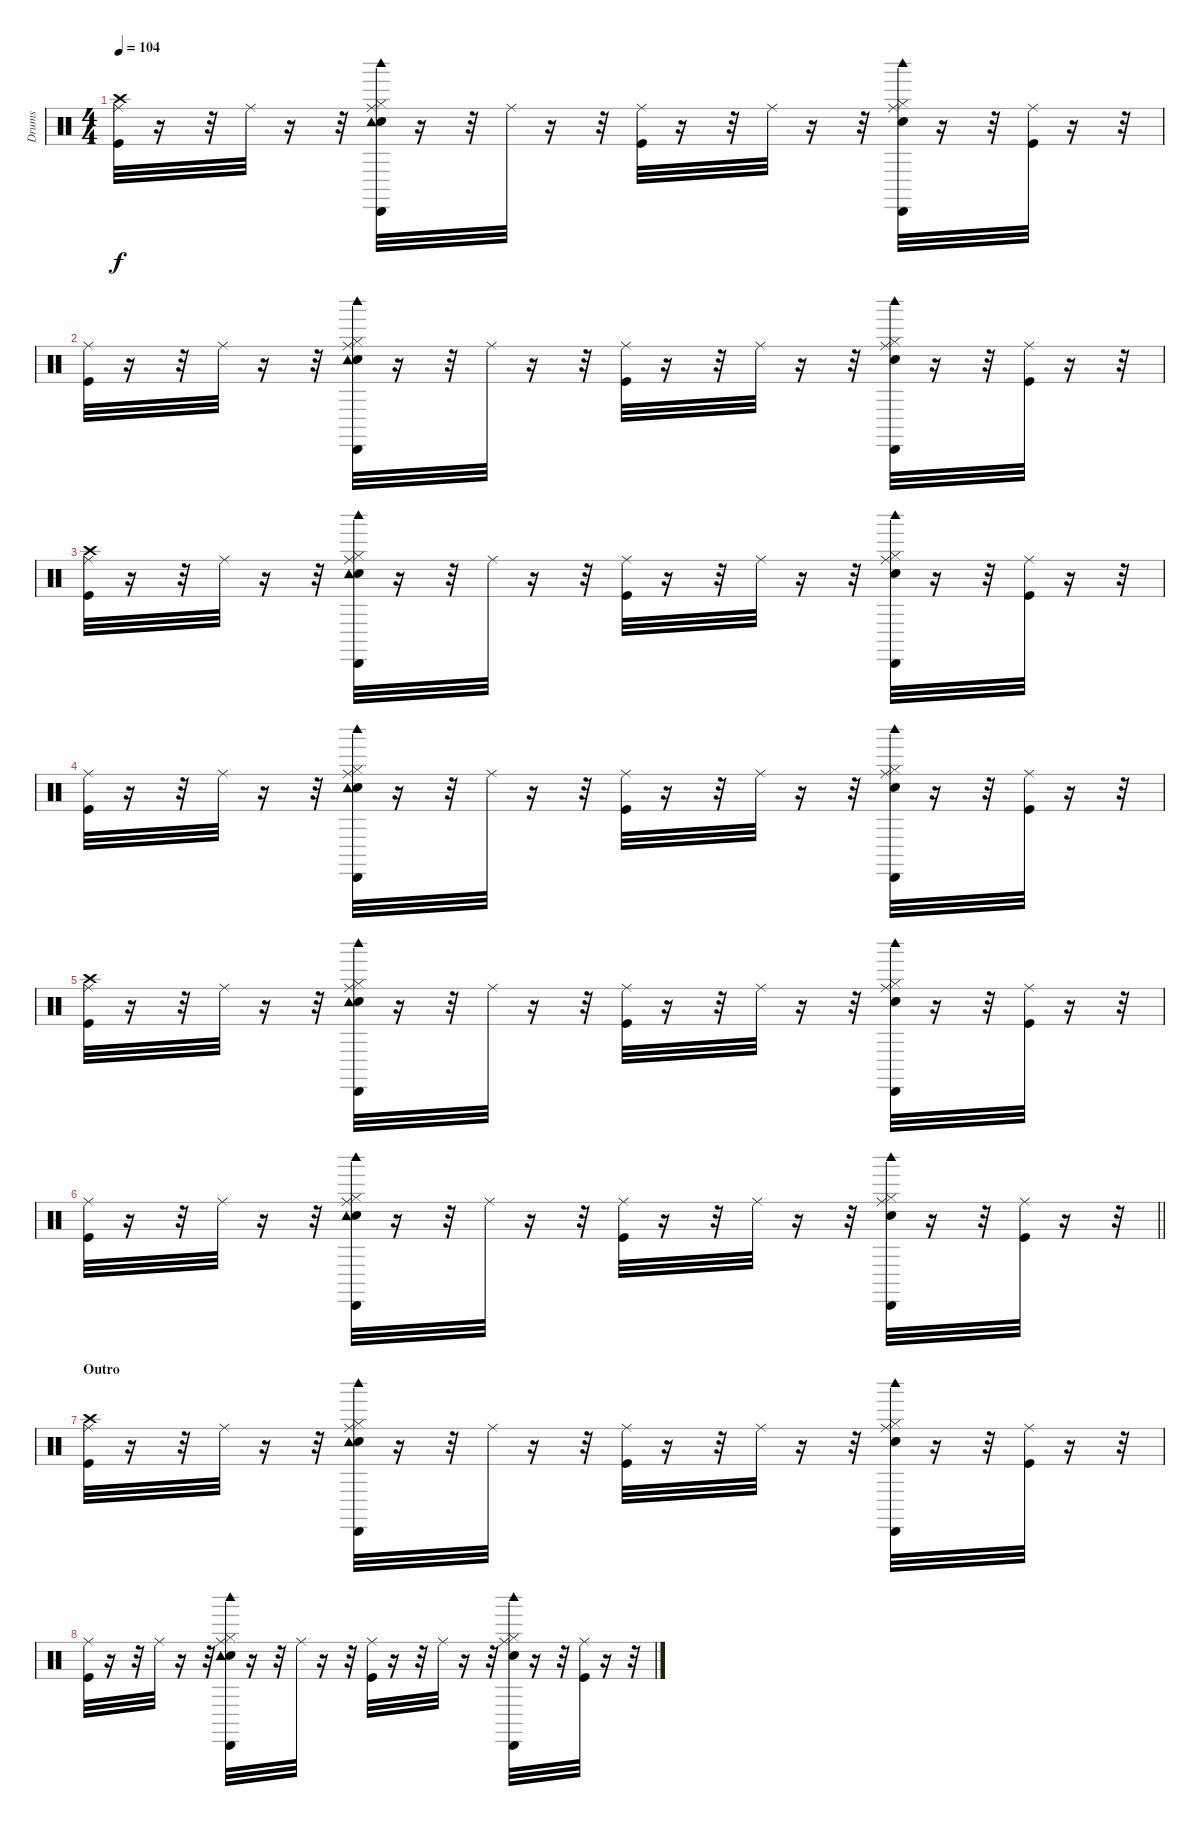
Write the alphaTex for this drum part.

\track ("Drums" "Drums") {instrument percussion}
\staff {score}
\articulation defaults
\ts (4 4)
\tempo 104
\clef neutral
\ks c
("Kick (hit)" "Crash high (hit)" "Ride (middle)").32{dy f} r.16 r.32 "Ride (middle)".32 r.16 r.32 ("Snare (hit) 2" "Hi-Hat (closed)" "Ride (middle)" "Tambourine (hit)" "Cabasa (hit)" "Woodblock high (hit)").32 r.16 r.32 "Ride (middle)".32 r.16 r.32 ("Kick (hit)" "Ride (middle)").32 r.16 r.32 "Ride (middle)".32 r.16 r.32 ("Snare (hit) 2" "Hi-Hat (closed)" "Ride (middle)" "Cabasa (hit)" "Woodblock high (hit)").32 r.16 r.32 ("Kick (hit)" "Ride (middle)").32 r.16 r.32 |
("Kick (hit)" "Ride (middle)").32 r.16 r.32 "Ride (middle)".32 r.16 r.32 ("Snare (hit) 2" "Hi-Hat (closed)" "Ride (middle)" "Tambourine (hit)" "Cabasa (hit)" "Woodblock high (hit)").32 r.16 r.32 "Ride (middle)".32 r.16 r.32 ("Kick (hit)" "Ride (middle)").32 r.16 r.32 "Ride (middle)".32 r.16 r.32 ("Snare (hit) 2" "Hi-Hat (closed)" "Ride (middle)" "Cabasa (hit)" "Woodblock high (hit)").32 r.16 r.32 ("Kick (hit)" "Ride (middle)").32 r.16 r.32 |
("Kick (hit)" "Crash high (hit)" "Ride (middle)").32 r.16 r.32 "Ride (middle)".32 r.16 r.32 ("Snare (hit) 2" "Hi-Hat (closed)" "Ride (middle)" "Tambourine (hit)" "Cabasa (hit)" "Woodblock high (hit)").32 r.16 r.32 "Ride (middle)".32 r.16 r.32 ("Kick (hit)" "Ride (middle)").32 r.16 r.32 "Ride (middle)".32 r.16 r.32 ("Snare (hit) 2" "Hi-Hat (closed)" "Ride (middle)" "Cabasa (hit)" "Woodblock high (hit)").32 r.16 r.32 ("Kick (hit)" "Ride (middle)").32 r.16 r.32 |
("Kick (hit)" "Ride (middle)").32 r.16 r.32 "Ride (middle)".32 r.16 r.32 ("Snare (hit) 2" "Hi-Hat (closed)" "Ride (middle)" "Tambourine (hit)" "Cabasa (hit)" "Woodblock high (hit)").32 r.16 r.32 "Ride (middle)".32 r.16 r.32 ("Kick (hit)" "Ride (middle)").32 r.16 r.32 "Ride (middle)".32 r.16 r.32 ("Snare (hit) 2" "Hi-Hat (closed)" "Ride (middle)" "Cabasa (hit)" "Woodblock high (hit)").32 r.16 r.32 ("Kick (hit)" "Ride (middle)").32 r.16 r.32 |
("Kick (hit)" "Crash high (hit)" "Ride (middle)").32{volume 10} r.16 r.32 "Ride (middle)".32 r.16 r.32 ("Snare (hit) 2" "Hi-Hat (closed)" "Ride (middle)" "Tambourine (hit)" "Cabasa (hit)" "Woodblock high (hit)").32 r.16 r.32 "Ride (middle)".32 r.16 r.32 ("Kick (hit)" "Ride (middle)").32 r.16 r.32 "Ride (middle)".32 r.16 r.32 ("Snare (hit) 2" "Hi-Hat (closed)" "Ride (middle)" "Cabasa (hit)" "Woodblock high (hit)").32 r.16 r.32 ("Kick (hit)" "Ride (middle)").32 r.16 r.32 |
\barLineRight lightlight
("Kick (hit)" "Ride (middle)").32 r.16 r.32 "Ride (middle)".32 r.16 r.32 ("Snare (hit) 2" "Hi-Hat (closed)" "Ride (middle)" "Tambourine (hit)" "Cabasa (hit)" "Woodblock high (hit)").32 r.16 r.32 "Ride (middle)".32 r.16 r.32 ("Kick (hit)" "Ride (middle)").32 r.16 r.32 "Ride (middle)".32 r.16 r.32 ("Snare (hit) 2" "Hi-Hat (closed)" "Ride (middle)" "Cabasa (hit)" "Woodblock high (hit)").32 r.16 r.32 ("Kick (hit)" "Ride (middle)").32 r.16 r.32 |
\section ("" "Outro")
("Kick (hit)" "Crash high (hit)" "Ride (middle)").32{volume 7} r.16 r.32 "Ride (middle)".32 r.16 r.32 ("Snare (hit) 2" "Hi-Hat (closed)" "Ride (middle)" "Tambourine (hit)" "Cabasa (hit)" "Woodblock high (hit)").32 r.16 r.32 "Ride (middle)".32 r.16 r.32 ("Kick (hit)" "Ride (middle)").32 r.16 r.32 "Ride (middle)".32 r.16 r.32 ("Snare (hit) 2" "Hi-Hat (closed)" "Ride (middle)" "Cabasa (hit)" "Woodblock high (hit)").32 r.16 r.32 ("Kick (hit)" "Ride (middle)").32 r.16 r.32 |
("Kick (hit)" "Ride (middle)").32 r.16 r.32 "Ride (middle)".32 r.16 r.32 ("Snare (hit) 2" "Hi-Hat (closed)" "Ride (middle)" "Tambourine (hit)" "Cabasa (hit)" "Woodblock high (hit)").32 r.16 r.32 "Ride (middle)".32 r.16 r.32 ("Kick (hit)" "Ride (middle)").32 r.16 r.32 "Ride (middle)".32 r.16 r.32 ("Snare (hit) 2" "Hi-Hat (closed)" "Ride (middle)" "Cabasa (hit)" "Woodblock high (hit)").32 r.16 r.32 ("Kick (hit)" "Ride (middle)").32 r.16 r.32
